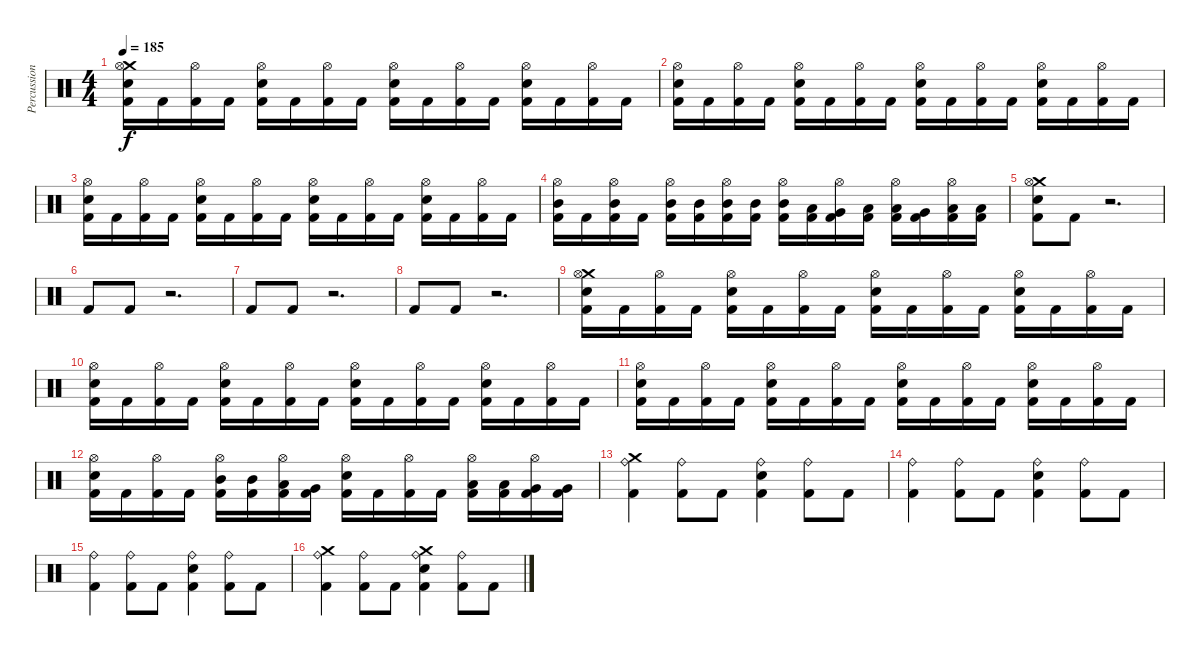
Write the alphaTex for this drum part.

\track ("Percussion" "Percussion") {instrument percussion}
\staff {score}
\articulation defaults
\ts (4 4)
\tempo 185
\clef neutral
\ks c
("Crash medium (hit)" "Hi-Hat (open)" "Electric Snare (hit)" "Kick (hit) 2").16{dy f} "Kick (hit) 2".16 ("Hi-Hat (open)" "Kick (hit) 2").16 "Kick (hit) 2".16 ("Hi-Hat (open)" "Electric Snare (hit)" "Kick (hit) 2").16 "Kick (hit) 2".16 ("Hi-Hat (open)" "Kick (hit) 2").16 "Kick (hit) 2".16 ("Hi-Hat (open)" "Electric Snare (hit)" "Kick (hit) 2").16 "Kick (hit) 2".16 ("Hi-Hat (open)" "Kick (hit) 2").16 "Kick (hit) 2".16 ("Hi-Hat (open)" "Electric Snare (hit)" "Kick (hit) 2").16 "Kick (hit) 2".16 ("Hi-Hat (open)" "Kick (hit) 2").16 "Kick (hit) 2".16 |
("Hi-Hat (open)" "Electric Snare (hit)" "Kick (hit) 2").16 "Kick (hit) 2".16 ("Hi-Hat (open)" "Kick (hit) 2").16 "Kick (hit) 2".16 ("Hi-Hat (open)" "Electric Snare (hit)" "Kick (hit) 2").16 "Kick (hit) 2".16 ("Hi-Hat (open)" "Kick (hit) 2").16 "Kick (hit) 2".16 ("Hi-Hat (open)" "Electric Snare (hit)" "Kick (hit) 2").16 "Kick (hit) 2".16 ("Hi-Hat (open)" "Kick (hit) 2").16 "Kick (hit) 2".16 ("Hi-Hat (open)" "Electric Snare (hit)" "Kick (hit) 2").16 "Kick (hit) 2".16 ("Hi-Hat (open)" "Kick (hit) 2").16 "Kick (hit) 2".16 |
("Hi-Hat (open)" "Electric Snare (hit)" "Kick (hit) 2").16 "Kick (hit) 2".16 ("Hi-Hat (open)" "Kick (hit) 2").16 "Kick (hit) 2".16 ("Hi-Hat (open)" "Electric Snare (hit)" "Kick (hit) 2").16 "Kick (hit) 2".16 ("Hi-Hat (open)" "Kick (hit) 2").16 "Kick (hit) 2".16 ("Hi-Hat (open)" "Electric Snare (hit)" "Kick (hit) 2").16 "Kick (hit) 2".16 ("Hi-Hat (open)" "Kick (hit) 2").16 "Kick (hit) 2".16 ("Hi-Hat (open)" "Electric Snare (hit)" "Kick (hit) 2").16 "Kick (hit) 2".16 ("Hi-Hat (open)" "Kick (hit) 2").16 "Kick (hit) 2".16 |
("Hi-Hat (open)" "Mid Tom (hit)" "Kick (hit) 2").16 "Kick (hit) 2".16 ("Hi-Hat (open)" "Mid Tom (hit)" "Kick (hit) 2").16 "Kick (hit) 2".16 ("Hi-Hat (open)" "Mid Tom (hit)" "Kick (hit) 2").16 ("Mid Tom (hit)" "Kick (hit) 2").16 ("Hi-Hat (open)" "Mid Tom (hit)" "Kick (hit) 2").16 ("Mid Tom (hit)" "Kick (hit) 2").16 ("Hi-Hat (open)" "Mid Tom (hit)" "Kick (hit) 2").16 ("Low Tom (hit)" "Kick (hit) 2").16 ("Hi-Hat (open)" "Very Low Tom (hit)" "Kick (hit) 2").16 ("Low Floor Tom (hit)" "Kick (hit) 2").16 ("Hi-Hat (open)" "Low Tom (hit)" "Kick (hit) 2").16 ("Very Low Tom (hit)" "Kick (hit) 2").16 ("Hi-Hat (open)" "Low Floor Tom (hit)" "Kick (hit) 2").16 ("Low Floor Tom (hit)" "Kick (hit) 2").16 |
("Crash medium (hit)" "Hi-Hat (open)" "Electric Snare (hit)" "Kick (hit) 2").8 "Kick (hit) 2".8 r.2{d} |
"Kick (hit) 2".8 "Kick (hit) 2".8 r.2{d} |
"Kick (hit) 2".8 "Kick (hit) 2".8 r.2{d} |
"Kick (hit) 2".8 "Kick (hit) 2".8 r.2{d} |
("Crash medium (hit)" "Hi-Hat (open)" "Electric Snare (hit)" "Kick (hit) 2").16 "Kick (hit) 2".16 ("Hi-Hat (open)" "Kick (hit) 2").16 "Kick (hit) 2".16 ("Hi-Hat (open)" "Electric Snare (hit)" "Kick (hit) 2").16 "Kick (hit) 2".16 ("Hi-Hat (open)" "Kick (hit) 2").16 "Kick (hit) 2".16 ("Hi-Hat (open)" "Electric Snare (hit)" "Kick (hit) 2").16 "Kick (hit) 2".16 ("Hi-Hat (open)" "Kick (hit) 2").16 "Kick (hit) 2".16 ("Hi-Hat (open)" "Electric Snare (hit)" "Kick (hit) 2").16 "Kick (hit) 2".16 ("Hi-Hat (open)" "Kick (hit) 2").16 "Kick (hit) 2".16 |
("Hi-Hat (open)" "Electric Snare (hit)" "Kick (hit) 2").16 "Kick (hit) 2".16 ("Hi-Hat (open)" "Kick (hit) 2").16 "Kick (hit) 2".16 ("Hi-Hat (open)" "Electric Snare (hit)" "Kick (hit) 2").16 "Kick (hit) 2".16 ("Hi-Hat (open)" "Kick (hit) 2").16 "Kick (hit) 2".16 ("Hi-Hat (open)" "Electric Snare (hit)" "Kick (hit) 2").16 "Kick (hit) 2".16 ("Hi-Hat (open)" "Kick (hit) 2").16 "Kick (hit) 2".16 ("Hi-Hat (open)" "Electric Snare (hit)" "Kick (hit) 2").16 "Kick (hit) 2".16 ("Hi-Hat (open)" "Kick (hit) 2").16 "Kick (hit) 2".16 |
("Hi-Hat (open)" "Electric Snare (hit)" "Kick (hit) 2").16 "Kick (hit) 2".16 ("Hi-Hat (open)" "Kick (hit) 2").16 "Kick (hit) 2".16 ("Hi-Hat (open)" "Electric Snare (hit)" "Kick (hit) 2").16 "Kick (hit) 2".16 ("Hi-Hat (open)" "Kick (hit) 2").16 "Kick (hit) 2".16 ("Hi-Hat (open)" "Electric Snare (hit)" "Kick (hit) 2").16 "Kick (hit) 2".16 ("Hi-Hat (open)" "Kick (hit) 2").16 "Kick (hit) 2".16 ("Hi-Hat (open)" "Electric Snare (hit)" "Kick (hit) 2").16 "Kick (hit) 2".16 ("Hi-Hat (open)" "Kick (hit) 2").16 "Kick (hit) 2".16 |
("Hi-Hat (open)" "Electric Snare (hit)" "Kick (hit) 2").16 "Kick (hit) 2".16 ("Hi-Hat (open)" "Kick (hit) 2").16 "Kick (hit) 2".16 ("Hi-Hat (open)" "Mid Tom (hit)" "Kick (hit) 2").16 ("Mid Tom (hit)" "Kick (hit) 2").16 ("Hi-Hat (open)" "Low Tom (hit)" "Kick (hit) 2").16 ("Very Low Tom (hit)" "Kick (hit) 2").16 ("Hi-Hat (open)" "Electric Snare (hit)" "Kick (hit) 2").16 "Kick (hit) 2".16 ("Hi-Hat (open)" "Kick (hit) 2").16 "Kick (hit) 2".16 ("Hi-Hat (open)" "Low Tom (hit)" "Kick (hit) 2").16 ("Low Tom (hit)" "Kick (hit) 2").16 ("Hi-Hat (open)" "Very Low Tom (hit)" "Kick (hit) 2").16 ("Very Low Tom (hit)" "Kick (hit) 2").16 |
("Crash medium (hit)" "Ride (bell)" "Kick (hit) 2").4 ("Ride (bell)" "Kick (hit) 2").8 "Kick (hit) 2".8 ("Ride (bell)" "Electric Snare (hit)" "Kick (hit) 2").4 ("Ride (bell)" "Kick (hit) 2").8 "Kick (hit) 2".8 |
("Ride (bell)" "Kick (hit) 2").4 ("Ride (bell)" "Kick (hit) 2").8 "Kick (hit) 2".8 ("Ride (bell)" "Electric Snare (hit)" "Kick (hit) 2").4 ("Ride (bell)" "Kick (hit) 2").8 "Kick (hit) 2".8 |
("Ride (bell)" "Kick (hit) 2").4 ("Ride (bell)" "Kick (hit) 2").8 "Kick (hit) 2".8 ("Ride (bell)" "Electric Snare (hit)" "Kick (hit) 2").4 ("Ride (bell)" "Kick (hit) 2").8 "Kick (hit) 2".8 |
("Crash medium (hit)" "Ride (bell)" "Kick (hit) 2").4 ("Ride (bell)" "Kick (hit) 2").8 "Kick (hit) 2".8 ("Crash medium (hit)" "Ride (bell)" "Electric Snare (hit)" "Kick (hit) 2").4 ("Ride (bell)" "Kick (hit) 2").8 "Kick (hit) 2".8
